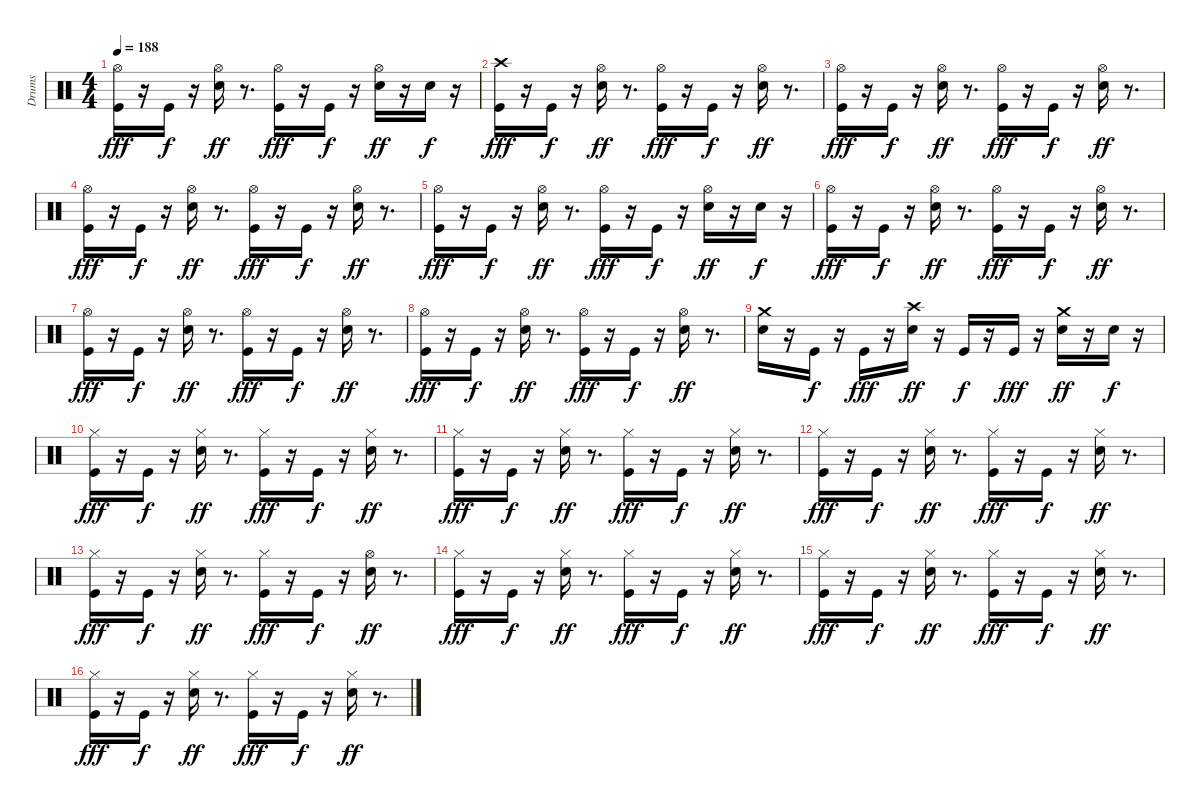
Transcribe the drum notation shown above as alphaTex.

\track ("Drums" "Drums") {instrument percussion}
\staff {score}
\articulation defaults
\ts (4 4)
\tempo 188
\clef neutral
\ks c
("Hi-Hat (open)" "Kick (hit)").16{dy fff} r.16 "Kick (hit)".16{dy f} r.16 ("Hi-Hat (open)" "Electric Snare (hit)").16{dy ff} r.8{d} ("Hi-Hat (open)" "Kick (hit)").16{dy fff} r.16 "Kick (hit)".16{dy f} r.16 ("Electric Snare (hit)" "Hi-Hat (open)").16{dy ff} r.16 "Electric Snare (hit)".16{dy f} r.16 |
("Crash high (hit)" "Kick (hit)").16{dy fff} r.16 "Kick (hit)".16{dy f} r.16 ("Hi-Hat (open)" "Electric Snare (hit)").16{dy ff} r.8{d} ("Hi-Hat (open)" "Kick (hit)").16{dy fff} r.16 "Kick (hit)".16{dy f} r.16 ("Hi-Hat (open)" "Electric Snare (hit)").16{dy ff} r.8{d} |
("Hi-Hat (open)" "Kick (hit)").16{dy fff} r.16 "Kick (hit)".16{dy f} r.16 ("Hi-Hat (open)" "Electric Snare (hit)").16{dy ff} r.8{d} ("Hi-Hat (open)" "Kick (hit)").16{dy fff} r.16 "Kick (hit)".16{dy f} r.16 ("Hi-Hat (open)" "Electric Snare (hit)").16{dy ff} r.8{d} |
("Hi-Hat (open)" "Kick (hit)").16{dy fff} r.16 "Kick (hit)".16{dy f} r.16 ("Hi-Hat (open)" "Electric Snare (hit)").16{dy ff} r.8{d} ("Hi-Hat (open)" "Kick (hit)").16{dy fff} r.16 "Kick (hit)".16{dy f} r.16 ("Hi-Hat (open)" "Electric Snare (hit)").16{dy ff} r.8{d} |
("Hi-Hat (open)" "Kick (hit)").16{dy fff} r.16 "Kick (hit)".16{dy f} r.16 ("Hi-Hat (open)" "Electric Snare (hit)").16{dy ff} r.8{d} ("Hi-Hat (open)" "Kick (hit)").16{dy fff} r.16 "Kick (hit)".16{dy f} r.16 ("Electric Snare (hit)" "Hi-Hat (open)").16{dy ff} r.16 "Electric Snare (hit)".16{dy f} r.16 |
("Hi-Hat (open)" "Kick (hit)").16{dy fff} r.16 "Kick (hit)".16{dy f} r.16 ("Hi-Hat (open)" "Electric Snare (hit)").16{dy ff} r.8{d} ("Hi-Hat (open)" "Kick (hit)").16{dy fff} r.16 "Kick (hit)".16{dy f} r.16 ("Hi-Hat (open)" "Electric Snare (hit)").16{dy ff} r.8{d} |
("Hi-Hat (open)" "Kick (hit)").16{dy fff} r.16 "Kick (hit)".16{dy f} r.16 ("Hi-Hat (open)" "Electric Snare (hit)").16{dy ff} r.8{d} ("Hi-Hat (open)" "Kick (hit)").16{dy fff} r.16 "Kick (hit)".16{dy f} r.16 ("Hi-Hat (open)" "Electric Snare (hit)").16{dy ff} r.8{d} |
("Hi-Hat (open)" "Kick (hit)").16{dy fff} r.16 "Kick (hit)".16{dy f} r.16 ("Hi-Hat (open)" "Electric Snare (hit)").16{dy ff} r.8{d} ("Hi-Hat (open)" "Kick (hit)").16{dy fff} r.16 "Kick (hit)".16{dy f} r.16 ("Hi-Hat (open)" "Electric Snare (hit)").16{dy ff} r.8{d} |
("Electric Snare (hit)" "Crash medium (hit)").16 r.16 "Kick (hit)".16{dy f} r.16 "Kick (hit)".16{dy fff} r.16 ("Crash high (hit)" "Electric Snare (hit)").16{dy ff} r.16 "Kick (hit)".16{dy f} r.16 "Kick (hit)".16{dy fff} r.16 ("Crash medium (hit)" "Electric Snare (hit)").16{dy ff} r.16 "Electric Snare (hit)".16{dy f} r.16 |
("Hi-Hat (closed)" "Kick (hit)").16{dy fff} r.16 "Kick (hit)".16{dy f} r.16 ("Electric Snare (hit)" "Hi-Hat (closed)").16{dy ff} r.8{d} ("Hi-Hat (closed)" "Kick (hit)").16{dy fff} r.16 "Kick (hit)".16{dy f} r.16 ("Electric Snare (hit)" "Hi-Hat (closed)").16{dy ff} r.8{d} |
("Hi-Hat (closed)" "Kick (hit)").16{dy fff} r.16 "Kick (hit)".16{dy f} r.16 ("Electric Snare (hit)" "Hi-Hat (closed)").16{dy ff} r.8{d} ("Hi-Hat (closed)" "Kick (hit)").16{dy fff} r.16 "Kick (hit)".16{dy f} r.16 ("Electric Snare (hit)" "Hi-Hat (closed)").16{dy ff} r.8{d} |
("Hi-Hat (closed)" "Kick (hit)").16{dy fff} r.16 "Kick (hit)".16{dy f} r.16 ("Electric Snare (hit)" "Hi-Hat (closed)").16{dy ff} r.8{d} ("Hi-Hat (closed)" "Kick (hit)").16{dy fff} r.16 "Kick (hit)".16{dy f} r.16 ("Electric Snare (hit)" "Hi-Hat (closed)").16{dy ff} r.8{d} |
("Hi-Hat (closed)" "Kick (hit)").16{dy fff} r.16 "Kick (hit)".16{dy f} r.16 ("Electric Snare (hit)" "Hi-Hat (closed)").16{dy ff} r.8{d} ("Hi-Hat (closed)" "Kick (hit)").16{dy fff} r.16 "Kick (hit)".16{dy f} r.16 ("Electric Snare (hit)" "Hi-Hat (open)").16{dy ff} r.8{d} |
("Hi-Hat (closed)" "Kick (hit)").16{dy fff} r.16 "Kick (hit)".16{dy f} r.16 ("Electric Snare (hit)" "Hi-Hat (closed)").16{dy ff} r.8{d} ("Hi-Hat (closed)" "Kick (hit)").16{dy fff} r.16 "Kick (hit)".16{dy f} r.16 ("Electric Snare (hit)" "Hi-Hat (closed)").16{dy ff} r.8{d} |
("Hi-Hat (closed)" "Kick (hit)").16{dy fff} r.16 "Kick (hit)".16{dy f} r.16 ("Electric Snare (hit)" "Hi-Hat (closed)").16{dy ff} r.8{d} ("Hi-Hat (closed)" "Kick (hit)").16{dy fff} r.16 "Kick (hit)".16{dy f} r.16 ("Electric Snare (hit)" "Hi-Hat (closed)").16{dy ff} r.8{d} |
("Hi-Hat (closed)" "Kick (hit)").16{dy fff} r.16 "Kick (hit)".16{dy f} r.16 ("Electric Snare (hit)" "Hi-Hat (closed)").16{dy ff} r.8{d} ("Hi-Hat (closed)" "Kick (hit)").16{dy fff} r.16 "Kick (hit)".16{dy f} r.16 ("Electric Snare (hit)" "Hi-Hat (closed)").16{dy ff} r.8{d}
